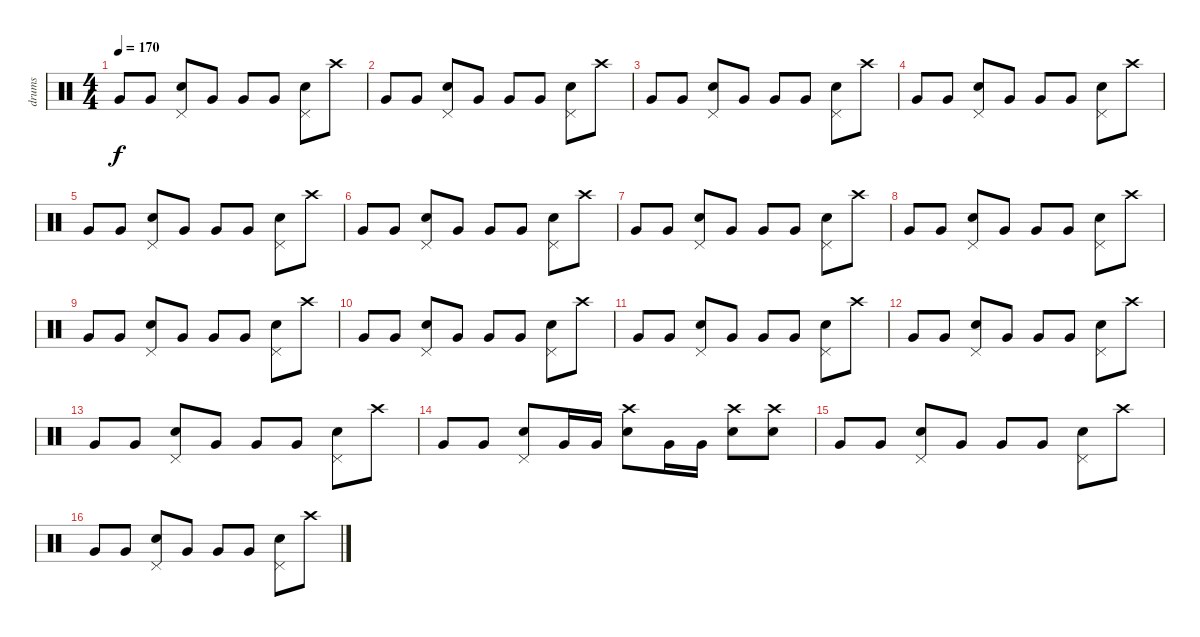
\track ("drums" "drums") {instrument percussion}
\staff {score}
\articulation defaults
\ts (4 4)
\tempo 170
\clef neutral
\ks c "Very Low Tom (hit)".8{dy f} "Very Low Tom (hit)".8
("Snare (hit) 2" "Pedal Hi-Hat (hit)").8 "Very Low Tom (hit)".8 "Very Low Tom (hit)".8 "Very Low Tom (hit)".8 ("Snare (hit) 2" "Pedal Hi-Hat (hit)").8 "Crash high (hit)".8 |
"Very Low Tom (hit)".8 "Very Low Tom (hit)".8 ("Snare (hit) 2" "Pedal Hi-Hat (hit)").8 "Very Low Tom (hit)".8 "Very Low Tom (hit)".8 "Very Low Tom (hit)".8 ("Snare (hit) 2" "Pedal Hi-Hat (hit)").8 "Crash high (hit)".8 |
"Very Low Tom (hit)".8 "Very Low Tom (hit)".8 ("Snare (hit) 2" "Pedal Hi-Hat (hit)").8 "Very Low Tom (hit)".8 "Very Low Tom (hit)".8 "Very Low Tom (hit)".8 ("Snare (hit) 2" "Pedal Hi-Hat (hit)").8 "Crash high (hit)".8 |
"Very Low Tom (hit)".8 "Very Low Tom (hit)".8 ("Snare (hit) 2" "Pedal Hi-Hat (hit)").8 "Very Low Tom (hit)".8 "Very Low Tom (hit)".8 "Very Low Tom (hit)".8 ("Snare (hit) 2" "Pedal Hi-Hat (hit)").8 "Crash high (hit)".8 |
"Very Low Tom (hit)".8 "Very Low Tom (hit)".8 ("Snare (hit) 2" "Pedal Hi-Hat (hit)").8 "Very Low Tom (hit)".8 "Very Low Tom (hit)".8 "Very Low Tom (hit)".8 ("Snare (hit) 2" "Pedal Hi-Hat (hit)").8 "Crash high (hit)".8 |
"Very Low Tom (hit)".8 "Very Low Tom (hit)".8 ("Snare (hit) 2" "Pedal Hi-Hat (hit)").8 "Very Low Tom (hit)".8 "Very Low Tom (hit)".8 "Very Low Tom (hit)".8 ("Snare (hit) 2" "Pedal Hi-Hat (hit)").8 "Crash high (hit)".8 |
"Very Low Tom (hit)".8 "Very Low Tom (hit)".8 ("Snare (hit) 2" "Pedal Hi-Hat (hit)").8 "Very Low Tom (hit)".8 "Very Low Tom (hit)".8 "Very Low Tom (hit)".8 ("Snare (hit) 2" "Pedal Hi-Hat (hit)").8 "Crash high (hit)".8 |
"Very Low Tom (hit)".8 "Very Low Tom (hit)".8 ("Snare (hit) 2" "Pedal Hi-Hat (hit)").8 "Very Low Tom (hit)".8 "Very Low Tom (hit)".8 "Very Low Tom (hit)".8 ("Snare (hit) 2" "Pedal Hi-Hat (hit)").8 "Crash high (hit)".8 |
"Very Low Tom (hit)".8 "Very Low Tom (hit)".8 ("Snare (hit) 2" "Pedal Hi-Hat (hit)").8 "Very Low Tom (hit)".8 "Very Low Tom (hit)".8 "Very Low Tom (hit)".8 ("Snare (hit) 2" "Pedal Hi-Hat (hit)").8 "Crash high (hit)".8 |
"Very Low Tom (hit)".8 "Very Low Tom (hit)".8 ("Snare (hit) 2" "Pedal Hi-Hat (hit)").8 "Very Low Tom (hit)".8 "Very Low Tom (hit)".8 "Very Low Tom (hit)".8 ("Snare (hit) 2" "Pedal Hi-Hat (hit)").8 "Crash high (hit)".8 |
"Very Low Tom (hit)".8 "Very Low Tom (hit)".8 ("Snare (hit) 2" "Pedal Hi-Hat (hit)").8 "Very Low Tom (hit)".8 "Very Low Tom (hit)".8 "Very Low Tom (hit)".8 ("Snare (hit) 2" "Pedal Hi-Hat (hit)").8 "Crash high (hit)".8 |
"Very Low Tom (hit)".8 "Very Low Tom (hit)".8 ("Snare (hit) 2" "Pedal Hi-Hat (hit)").8 "Very Low Tom (hit)".8 "Very Low Tom (hit)".8 "Very Low Tom (hit)".8 ("Snare (hit) 2" "Pedal Hi-Hat (hit)").8 "Crash high (hit)".8 |
"Very Low Tom (hit)".8 "Very Low Tom (hit)".8 ("Snare (hit) 2" "Pedal Hi-Hat (hit)").8 "Very Low Tom (hit)".8 "Very Low Tom (hit)".8 "Very Low Tom (hit)".8 ("Snare (hit) 2" "Pedal Hi-Hat (hit)").8 "Crash high (hit)".8 |
"Very Low Tom (hit)".8 "Very Low Tom (hit)".8 ("Snare (hit) 2" "Pedal Hi-Hat (hit)").8 "Very Low Tom (hit)".16 "Very Low Tom (hit)".16 ("Snare (hit) 2" "Crash high (hit)").8 "Very Low Tom (hit)".16 "Very Low Tom (hit)".16 ("Snare (hit) 2" "Crash high (hit)").8 ("Snare (hit) 2" "Crash high (hit)").8 |
"Very Low Tom (hit)".8 "Very Low Tom (hit)".8 ("Snare (hit) 2" "Pedal Hi-Hat (hit)").8 "Very Low Tom (hit)".8 "Very Low Tom (hit)".8 "Very Low Tom (hit)".8 ("Snare (hit) 2" "Pedal Hi-Hat (hit)").8 "Crash high (hit)".8 |
"Very Low Tom (hit)".8 "Very Low Tom (hit)".8 ("Snare (hit) 2" "Pedal Hi-Hat (hit)").8 "Very Low Tom (hit)".8 "Very Low Tom (hit)".8 "Very Low Tom (hit)".8 ("Snare (hit) 2" "Pedal Hi-Hat (hit)").8 "Crash high (hit)".8
